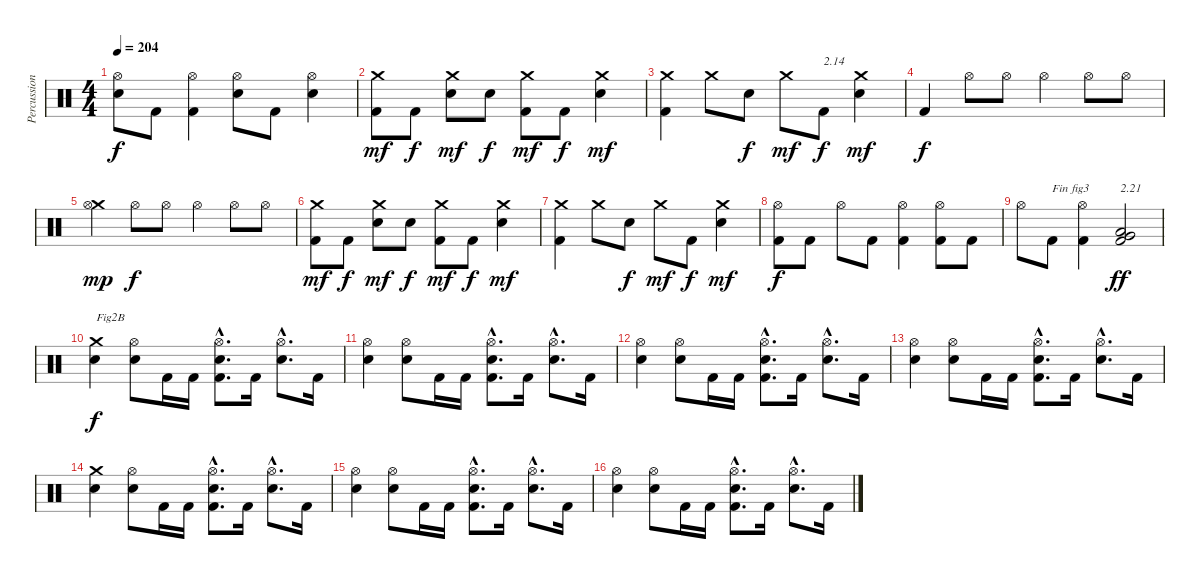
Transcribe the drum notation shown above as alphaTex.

\track ("Percussions" "Percussion") {instrument percussion}
\staff {score}
\articulation defaults
\ts (4 4)
\tempo 204
\clef neutral
\ks c
("Snare (hit)"{t} "Hi-Hat (open)").8{dy f} "Kick (hit) 2".8 ("Kick (hit) 2" "Hi-Hat (open)").4 ("Electric Snare (hit)" "Hi-Hat (open)").8 "Kick (hit) 2".8 ("Electric Snare (hit)" "Hi-Hat (open)").4 |
("Kick (hit) 2" "Crash medium (hit)").8{dy mf} "Kick (hit) 2".8{dy f} ("Electric Snare (hit)" "Crash medium (hit)").8{dy mf} "Electric Snare (hit)".8{dy f} ("Kick (hit) 2" "Crash medium (hit)").8{dy mf} "Kick (hit) 2".8{dy f} ("Electric Snare (hit)" "Crash medium (hit)").4{dy mf} |
("Kick (hit) 2" "Crash medium (hit)").4 "Crash medium (hit)".8 "Electric Snare (hit)".8{dy f} "Crash medium (hit)".8{dy mf} "Kick (hit) 2".8{txt "2.14" dy f} ("Electric Snare (hit)" "Crash medium (hit)").4{dy mf} |
"Kick (hit) 2".4{dy f} "Hi-Hat (open)".8 "Hi-Hat (open)".8 "Hi-Hat (open)".4 "Hi-Hat (open)".8 "Hi-Hat (open)".8 |
("Crash medium (hit)" "Hi-Hat (open)").4{dy mp} "Hi-Hat (open)".8{dy f} "Hi-Hat (open)".8 "Hi-Hat (open)".4 "Hi-Hat (open)".8 "Hi-Hat (open)".8 |
("Kick (hit) 2" "Crash medium (hit)").8{dy mf} "Kick (hit) 2".8{dy f} ("Electric Snare (hit)" "Crash medium (hit)").8{dy mf} "Electric Snare (hit)".8{dy f} ("Kick (hit) 2" "Crash medium (hit)").8{dy mf} "Kick (hit) 2".8{dy f} ("Electric Snare (hit)" "Crash medium (hit)").4{dy mf} |
("Kick (hit) 2" "Crash medium (hit)").4 "Crash medium (hit)".8 "Electric Snare (hit)".8{dy f} "Crash medium (hit)".8{dy mf} "Kick (hit) 2".8{dy f} ("Electric Snare (hit)" "Crash medium (hit)").4{dy mf} |
("Kick (hit) 2" "Hi-Hat (open)").8{dy f} "Kick (hit) 2".8 "Hi-Hat (open)".8 "Kick (hit) 2".8 ("Kick (hit) 2" "Hi-Hat (open)").4 ("Kick (hit) 2" "Hi-Hat (open)").8 "Kick (hit) 2".8 |
"Hi-Hat (open)".8 "Kick (hit) 2".8{txt "Fin fig3"} ("Kick (hit) 2" "Hi-Hat (open)").4 ("Kick (hit) 2" "Low Floor Tom (hit)" "Very Low Tom (hit)").2{txt "2.21" dy ff} |
("Electric Snare (hit)" "Crash medium (hit)").4{txt "Fig2B" dy f} ("Electric Snare (hit)" "Hi-Hat (open)").8 "Kick (hit) 2".16 "Kick (hit) 2".16 ("Kick (hit) 2"{hac} "Electric Snare (hit)"{hac} "Hi-Hat (open)"{hac}).8{d} "Kick (hit) 2".16 ("Electric Snare (hit)"{hac} "Hi-Hat (open)"{hac}).8{d} "Kick (hit) 2".16 |
("Electric Snare (hit)" "Hi-Hat (open)").4 ("Electric Snare (hit)" "Hi-Hat (open)").8 "Kick (hit) 2".16 "Kick (hit) 2".16 ("Kick (hit) 2"{hac} "Electric Snare (hit)"{hac} "Hi-Hat (open)"{hac}).8{d} "Kick (hit) 2".16 ("Electric Snare (hit)"{hac} "Hi-Hat (open)"{hac}).8{d} "Kick (hit) 2".16 |
("Electric Snare (hit)" "Hi-Hat (open)").4 ("Electric Snare (hit)" "Hi-Hat (open)").8 "Kick (hit) 2".16 "Kick (hit) 2".16 ("Kick (hit) 2"{hac} "Electric Snare (hit)"{hac} "Hi-Hat (open)"{hac}).8{d} "Kick (hit) 2".16 ("Electric Snare (hit)"{hac} "Hi-Hat (open)"{hac}).8{d} "Kick (hit) 2".16 |
("Electric Snare (hit)" "Hi-Hat (open)").4 ("Electric Snare (hit)" "Hi-Hat (open)").8 "Kick (hit) 2".16 "Kick (hit) 2".16 ("Kick (hit) 2"{hac} "Electric Snare (hit)"{hac} "Hi-Hat (open)"{hac}).8{d} "Kick (hit) 2".16 ("Electric Snare (hit)"{hac} "Hi-Hat (open)"{hac}).8{d} "Kick (hit) 2".16 |
("Electric Snare (hit)" "Crash medium (hit)").4 ("Electric Snare (hit)" "Hi-Hat (open)").8 "Kick (hit) 2".16 "Kick (hit) 2".16 ("Kick (hit) 2"{hac} "Electric Snare (hit)"{hac} "Hi-Hat (open)"{hac}).8{d} "Kick (hit) 2".16 ("Electric Snare (hit)"{hac} "Hi-Hat (open)"{hac}).8{d} "Kick (hit) 2".16 |
("Electric Snare (hit)" "Hi-Hat (open)").4 ("Electric Snare (hit)" "Hi-Hat (open)").8 "Kick (hit) 2".16 "Kick (hit) 2".16 ("Kick (hit) 2"{hac} "Electric Snare (hit)"{hac} "Hi-Hat (open)"{hac}).8{d} "Kick (hit) 2".16 ("Electric Snare (hit)"{hac} "Hi-Hat (open)"{hac}).8{d} "Kick (hit) 2".16 |
("Electric Snare (hit)" "Hi-Hat (open)").4 ("Electric Snare (hit)" "Hi-Hat (open)").8 "Kick (hit) 2".16 "Kick (hit) 2".16 ("Kick (hit) 2"{hac} "Electric Snare (hit)"{hac} "Hi-Hat (open)"{hac}).8{d} "Kick (hit) 2".16 ("Electric Snare (hit)"{hac} "Hi-Hat (open)"{hac}).8{d} "Kick (hit) 2".16
